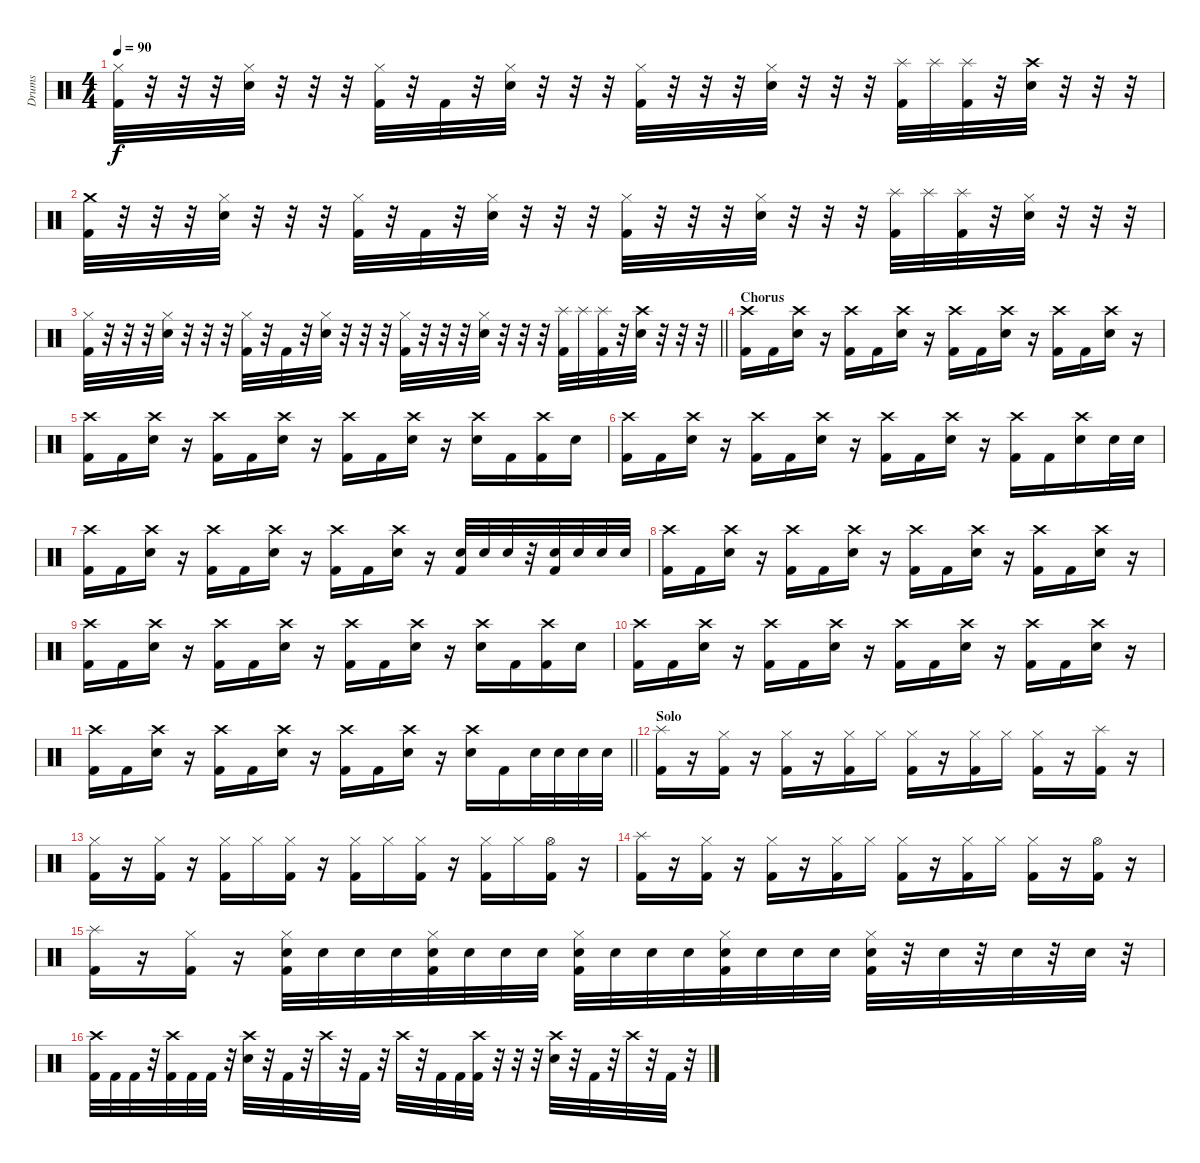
\track ("Drums" "Drums") {instrument percussion}
\staff {score}
\articulation defaults
\ts (4 4)
\tempo 90
\clef neutral
\ks c
("Hi-Hat (closed)" "Kick (hit) 2").32{dy f} r.32 r.32 r.32 ("Hi-Hat (closed)" "Electric Snare (hit)").32 r.32 r.32 r.32 ("Hi-Hat (closed)" "Kick (hit) 2").32 r.32 "Kick (hit) 2".32 r.32 ("Hi-Hat (closed)" "Electric Snare (hit)").32 r.32 r.32 r.32 ("Hi-Hat (closed)" "Kick (hit) 2").32 r.32 r.32 r.32 ("Hi-Hat (closed)" "Electric Snare (hit)").32 r.32 r.32 r.32 ("Splash (hit)" "Kick (hit) 2").32 "Splash (hit)".32 ("Splash (hit)" "Kick (hit) 2").32 r.32 ("Crash high (hit)" "Electric Snare (hit)").32 r.32 r.32 r.32 |
("Crash medium (hit)" "Kick (hit) 2").32 r.32 r.32 r.32 ("Hi-Hat (closed)" "Electric Snare (hit)").32 r.32 r.32 r.32 ("Hi-Hat (closed)" "Kick (hit) 2").32 r.32 "Kick (hit) 2".32 r.32 ("Hi-Hat (closed)" "Electric Snare (hit)").32 r.32 r.32 r.32 ("Hi-Hat (closed)" "Kick (hit) 2").32 r.32 r.32 r.32 ("Hi-Hat (closed)" "Electric Snare (hit)").32 r.32 r.32 r.32 ("Splash (hit)" "Kick (hit) 2").32 "Splash (hit)".32 ("Splash (hit)" "Kick (hit) 2").32 r.32 ("Hi-Hat (closed)" "Electric Snare (hit)").32 r.32 r.32 r.32 |
\barLineRight lightlight
("Hi-Hat (closed)" "Kick (hit) 2").32 r.32 r.32 r.32 ("Hi-Hat (closed)" "Electric Snare (hit)").32 r.32 r.32 r.32 ("Hi-Hat (closed)" "Kick (hit) 2").32 r.32 "Kick (hit) 2".32 r.32 ("Hi-Hat (closed)" "Electric Snare (hit)").32 r.32 r.32 r.32 ("Hi-Hat (closed)" "Kick (hit) 2").32 r.32 r.32 r.32 ("Hi-Hat (closed)" "Electric Snare (hit)").32 r.32 r.32 r.32 ("Splash (hit)" "Kick (hit) 2").32 "Splash (hit)".32 ("Splash (hit)" "Kick (hit) 2").32 r.32 ("Crash high (hit)" "Electric Snare (hit)").32 r.32 r.32 r.32 |
\section ("" "Chorus")
("Crash high (hit)" "Kick (hit) 2").16 "Kick (hit) 2".16 ("Crash high (hit)" "Electric Snare (hit)").16 r.16 ("Crash high (hit)" "Kick (hit) 2").16 "Kick (hit) 2".16 ("Crash high (hit)" "Electric Snare (hit)").16 r.16 ("Crash high (hit)" "Kick (hit) 2").16 "Kick (hit) 2".16 ("Crash high (hit)" "Electric Snare (hit)").16 r.16 ("Crash high (hit)" "Kick (hit) 2").16 "Kick (hit) 2".16 ("Crash high (hit)" "Electric Snare (hit)").16 r.16 |
("Crash high (hit)" "Kick (hit) 2").16 "Kick (hit) 2".16 ("Crash high (hit)" "Electric Snare (hit)").16 r.16 ("Crash high (hit)" "Kick (hit) 2").16 "Kick (hit) 2".16 ("Crash high (hit)" "Electric Snare (hit)").16 r.16 ("Crash high (hit)" "Kick (hit) 2").16 "Kick (hit) 2".16 ("Crash high (hit)" "Electric Snare (hit)").16 r.16 ("Crash high (hit)" "Electric Snare (hit)").16 "Kick (hit) 2".16 ("Crash high (hit)" "Kick (hit) 2").16 "Electric Snare (hit)".16 |
("Crash high (hit)" "Kick (hit) 2").16 "Kick (hit) 2".16 ("Crash high (hit)" "Electric Snare (hit)").16 r.16 ("Crash high (hit)" "Kick (hit) 2").16 "Kick (hit) 2".16 ("Crash high (hit)" "Electric Snare (hit)").16 r.16 ("Crash high (hit)" "Kick (hit) 2").16 "Kick (hit) 2".16 ("Crash high (hit)" "Electric Snare (hit)").16 r.16 ("Crash high (hit)" "Kick (hit) 2").16 "Kick (hit) 2".16 ("Crash high (hit)" "Electric Snare (hit)").16 "Electric Snare (hit)".32 "Electric Snare (hit)".32 |
("Crash high (hit)" "Kick (hit) 2").16 "Kick (hit) 2".16 ("Crash high (hit)" "Electric Snare (hit)").16 r.16 ("Crash high (hit)" "Kick (hit) 2").16 "Kick (hit) 2".16 ("Crash high (hit)" "Electric Snare (hit)").16 r.16 ("Crash high (hit)" "Kick (hit) 2").16 "Kick (hit) 2".16 ("Crash high (hit)" "Electric Snare (hit)").16 r.16 ("Electric Snare (hit)" "Kick (hit) 2").32 "Electric Snare (hit)".32 "Electric Snare (hit)".32 r.32 ("Electric Snare (hit)" "Kick (hit) 2").32 "Electric Snare (hit)".32 "Electric Snare (hit)".32 "Electric Snare (hit)".32 |
("Crash high (hit)" "Kick (hit) 2").16 "Kick (hit) 2".16 ("Crash high (hit)" "Electric Snare (hit)").16 r.16 ("Crash high (hit)" "Kick (hit) 2").16 "Kick (hit) 2".16 ("Crash high (hit)" "Electric Snare (hit)").16 r.16 ("Crash high (hit)" "Kick (hit) 2").16 "Kick (hit) 2".16 ("Crash high (hit)" "Electric Snare (hit)").16 r.16 ("Crash high (hit)" "Kick (hit) 2").16 "Kick (hit) 2".16 ("Crash high (hit)" "Electric Snare (hit)").16 r.16 |
("Crash high (hit)" "Kick (hit) 2").16 "Kick (hit) 2".16 ("Crash high (hit)" "Electric Snare (hit)").16 r.16 ("Crash high (hit)" "Kick (hit) 2").16 "Kick (hit) 2".16 ("Crash high (hit)" "Electric Snare (hit)").16 r.16 ("Crash high (hit)" "Kick (hit) 2").16 "Kick (hit) 2".16 ("Crash high (hit)" "Electric Snare (hit)").16 r.16 ("Crash high (hit)" "Electric Snare (hit)").16 "Kick (hit) 2".16 ("Crash high (hit)" "Kick (hit) 2").16 "Electric Snare (hit)".16 |
("Crash high (hit)" "Kick (hit) 2").16 "Kick (hit) 2".16 ("Crash high (hit)" "Electric Snare (hit)").16 r.16 ("Crash high (hit)" "Kick (hit) 2").16 "Kick (hit) 2".16 ("Crash high (hit)" "Electric Snare (hit)").16 r.16 ("Crash high (hit)" "Kick (hit) 2").16 "Kick (hit) 2".16 ("Crash high (hit)" "Electric Snare (hit)").16 r.16 ("Crash high (hit)" "Kick (hit) 2").16 "Kick (hit) 2".16 ("Crash high (hit)" "Electric Snare (hit)").16 r.16 |
\barLineRight lightlight
("Crash high (hit)" "Kick (hit) 2").16 "Kick (hit) 2".16 ("Crash high (hit)" "Electric Snare (hit)").16 r.16 ("Crash high (hit)" "Kick (hit) 2").16 "Kick (hit) 2".16 ("Crash high (hit)" "Electric Snare (hit)").16 r.16 ("Crash high (hit)" "Kick (hit) 2").16 "Kick (hit) 2".16 ("Crash high (hit)" "Electric Snare (hit)").16 r.16 ("Crash high (hit)" "Electric Snare (hit)").16 "Kick (hit) 2".16 "Electric Snare (hit)".32 "Electric Snare (hit)".32 "Electric Snare (hit)".32 "Electric Snare (hit)".32 |
\section ("" "Solo")
("Splash (hit)" "Kick (hit) 2").16 r.16 ("Hi-Hat (closed)" "Kick (hit) 2").16 r.16 ("Hi-Hat (closed)" "Kick (hit) 2").16 r.16 ("Hi-Hat (closed)" "Kick (hit) 2").16 "Hi-Hat (closed)".16 ("Hi-Hat (closed)" "Kick (hit) 2").16 r.16 ("Hi-Hat (closed)" "Kick (hit) 2").16 "Hi-Hat (closed)".16 ("Hi-Hat (closed)" "Kick (hit) 2").16 r.16 ("Splash (hit)" "Kick (hit) 2").16 r.16 |
("Hi-Hat (closed)" "Kick (hit) 2").16 r.16 ("Hi-Hat (closed)" "Kick (hit) 2").16 r.16 ("Hi-Hat (closed)" "Kick (hit) 2").16 "Hi-Hat (closed)".16 ("Hi-Hat (closed)" "Kick (hit) 2").16 r.16 ("Hi-Hat (closed)" "Kick (hit) 2").16 "Hi-Hat (closed)".16 ("Hi-Hat (closed)" "Kick (hit) 2").16 r.16 ("Hi-Hat (closed)" "Kick (hit) 2").16 "Hi-Hat (closed)".16 ("Hi-Hat (open)" "Kick (hit) 2").16 r.16 |
("Splash (hit)" "Kick (hit) 2").16 r.16 ("Hi-Hat (closed)" "Kick (hit) 2").16 r.16 ("Hi-Hat (closed)" "Kick (hit) 2").16 r.16 ("Hi-Hat (closed)" "Kick (hit) 2").16 "Hi-Hat (closed)".16 ("Hi-Hat (closed)" "Kick (hit) 2").16 r.16 ("Hi-Hat (closed)" "Kick (hit) 2").16 "Hi-Hat (closed)".16 ("Hi-Hat (closed)" "Kick (hit) 2").16 r.16 ("Hi-Hat (open)" "Kick (hit) 2").16 r.16 |
("Splash (hit)" "Kick (hit) 2").16 r.16 ("Hi-Hat (closed)" "Kick (hit) 2").16 r.16 ("Hi-Hat (closed)" "Electric Snare (hit)" "Kick (hit) 2").32 "Electric Snare (hit)".32 "Electric Snare (hit)".32 "Electric Snare (hit)".32 ("Hi-Hat (closed)" "Electric Snare (hit)" "Kick (hit) 2").32 "Electric Snare (hit)".32 "Electric Snare (hit)".32 "Electric Snare (hit)".32 ("Hi-Hat (closed)" "Electric Snare (hit)" "Kick (hit) 2").32 "Electric Snare (hit)".32 "Electric Snare (hit)".32 "Electric Snare (hit)".32 ("Hi-Hat (closed)" "Electric Snare (hit)" "Kick (hit) 2").32 "Electric Snare (hit)".32 "Electric Snare (hit)".32 "Electric Snare (hit)".32 ("Hi-Hat (closed)" "Electric Snare (hit)" "Kick (hit) 2").32 r.32 "Electric Snare (hit)".32 r.32 "Electric Snare (hit)".32 r.32 "Electric Snare (hit)".32 r.32 |
("Crash high (hit)" "Kick (hit) 2").32 "Kick (hit) 2".32 "Kick (hit) 2".32 r.32 ("Crash high (hit)" "Kick (hit) 2").32 "Kick (hit) 2".32 "Kick (hit) 2".32 r.32 ("Crash high (hit)" "Electric Snare (hit)").32 r.32 "Kick (hit) 2".32 r.32 "Crash high (hit)".32 r.32 "Kick (hit) 2".32 r.32 "Crash high (hit)".32 r.32 "Kick (hit) 2".32 "Kick (hit) 2".32 ("Crash high (hit)" "Kick (hit) 2").32 r.32 r.32 r.32 ("Crash high (hit)" "Electric Snare (hit)").32 r.32 "Kick (hit) 2".32 r.32 "Crash high (hit)".32 r.32 "Kick (hit) 2".32 r.32
